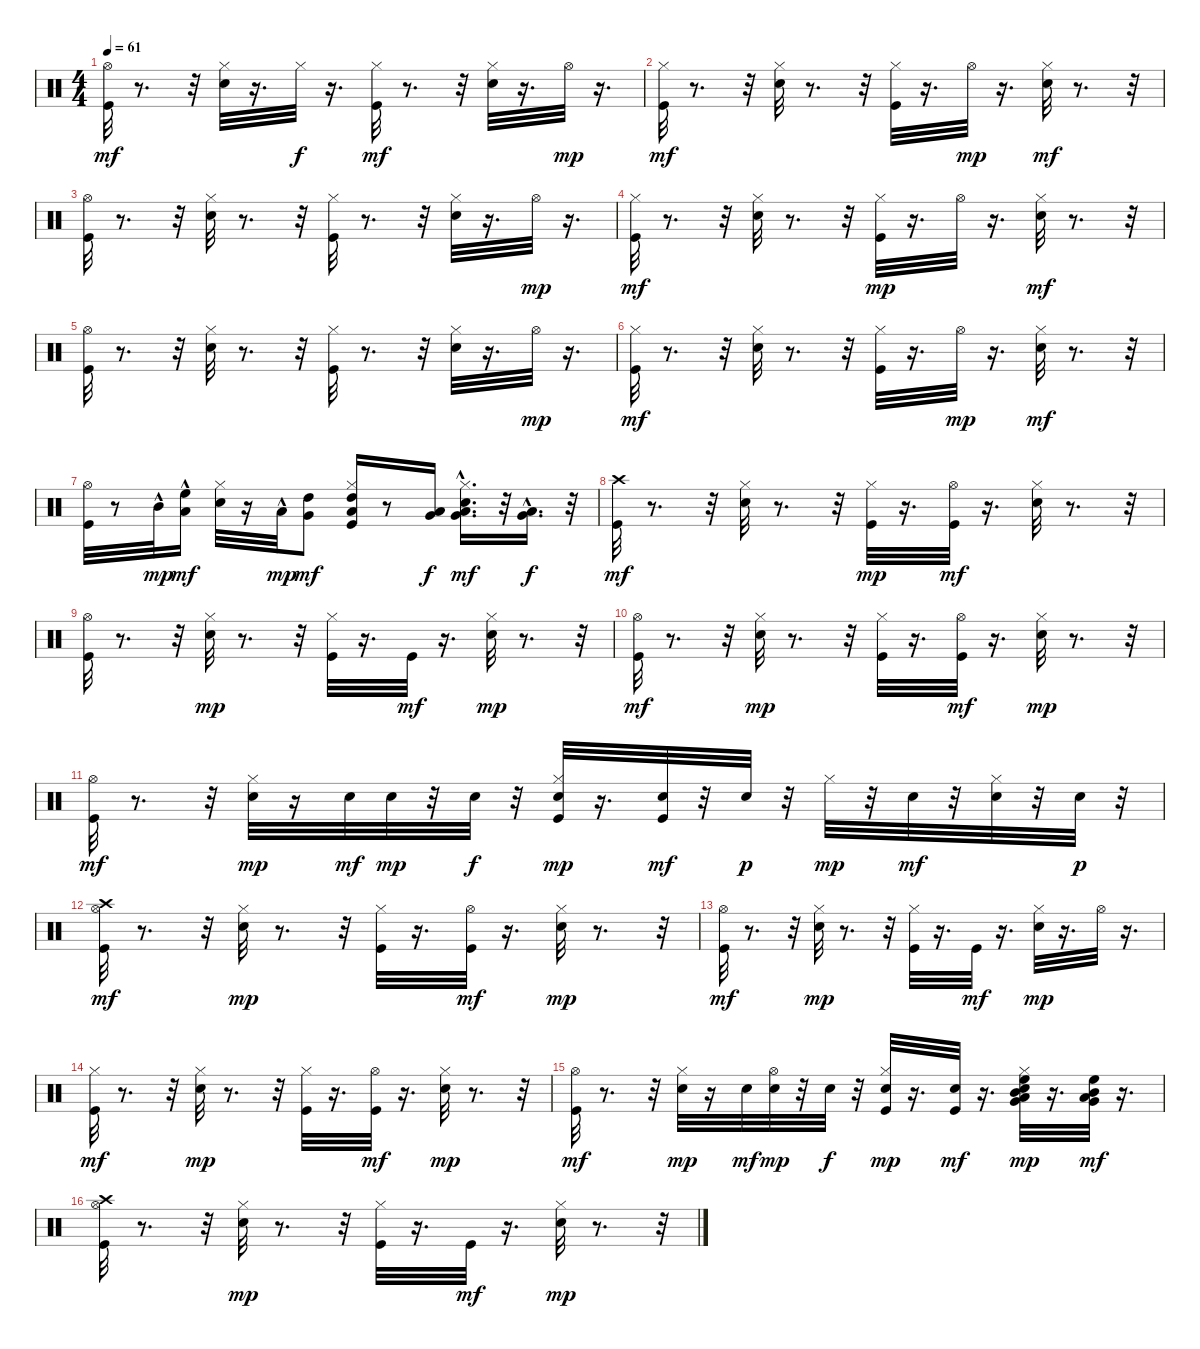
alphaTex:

\track "" {instrument percussion}
\staff {score}
\articulation defaults
\ts (4 4)
\tempo 61
\clef neutral
\ks c
("Hi-Hat (open)" "Kick (hit)").32{dy mf} r.8{d} r.32 ("Hi-Hat (closed)" "Electric Snare (hit)").32 r.16{d} "Hi-Hat (closed)".32{dy f} r.16{d} ("Hi-Hat (closed)" "Kick (hit)").32{dy mf} r.8{d} r.32 ("Hi-Hat (closed)" "Electric Snare (hit)").32 r.16{d} "Hi-Hat (open)".32{dy mp} r.16{d} |
("Hi-Hat (closed)" "Kick (hit)").32{dy mf} r.8{d} r.32 ("Hi-Hat (closed)" "Electric Snare (hit)").32 r.8{d} r.32 ("Hi-Hat (closed)" "Kick (hit)").32 r.16{d} "Hi-Hat (open)".32{dy mp} r.16{d} ("Hi-Hat (closed)" "Electric Snare (hit)").32{dy mf} r.8{d} r.32 |
("Hi-Hat (open)" "Kick (hit)").32 r.8{d} r.32 ("Hi-Hat (closed)" "Electric Snare (hit)").32 r.8{d} r.32 ("Hi-Hat (closed)" "Kick (hit)").32 r.8{d} r.32 ("Hi-Hat (closed)" "Electric Snare (hit)").32 r.16{d} "Hi-Hat (open)".32{dy mp} r.16{d} |
("Hi-Hat (closed)" "Kick (hit)").32{dy mf} r.8{d} r.32 ("Hi-Hat (closed)" "Electric Snare (hit)").32 r.8{d} r.32 ("Kick (hit)" "Hi-Hat (closed)").32{dy mp} r.16{d} "Hi-Hat (open)".32 r.16{d} ("Hi-Hat (closed)" "Electric Snare (hit)").32{dy mf} r.8{d} r.32 |
("Hi-Hat (open)" "Kick (hit)").32 r.8{d} r.32 ("Hi-Hat (closed)" "Electric Snare (hit)").32 r.8{d} r.32 ("Hi-Hat (closed)" "Kick (hit)").32 r.8{d} r.32 ("Hi-Hat (closed)" "Electric Snare (hit)").32 r.16{d} "Hi-Hat (open)".32{dy mp} r.16{d} |
("Hi-Hat (closed)" "Kick (hit)").32{dy mf} r.8{d} r.32 ("Hi-Hat (closed)" "Electric Snare (hit)").32 r.8{d} r.32 ("Hi-Hat (closed)" "Kick (hit)").32 r.16{d} "Hi-Hat (open)".32{dy mp} r.16{d} ("Hi-Hat (closed)" "Electric Snare (hit)").32{dy mf} r.8{d} r.32 |
("Hi-Hat (open)" "Kick (hit)").32 r.8 "Mid Tom (hit)"{hac}.32{dy mp} ("High Floor Tom (hit)"{hac} "Low Tom (hit)"{hac}).16{dy mf} ("Hi-Hat (closed)" "Electric Snare (hit)").32 r.16 "Low Tom (hit)"{hac}.32{dy mp} ("Very Low Tom (hit)" "High Tom (hit)").8{dy mf} ("High Tom (hit)" "Low Tom (hit)" "Hi-Hat (closed)" "Kick (hit)").16 r.8 ("Very Low Tom (hit)" "Low Tom (hit)").16{dy f} ("Very Low Tom (hit)"{hac} "Low Tom (hit)"{hac} "Hi-Hat (closed)" "Electric Snare (hit)").16{d dy mf} r.32 ("Low Floor Tom (hit)"{hac} "Very Low Tom (hit)").16{d dy f} r.32 |
("Kick (hit)" "Crash high (hit)").32{dy mf} r.8{d} r.32 ("Hi-Hat (closed)" "Electric Snare (hit)").32 r.8{d} r.32 ("Kick (hit)" "Hi-Hat (closed)").32{dy mp} r.16{d} ("Hi-Hat (open)" "Kick (hit)").32{dy mf} r.16{d} ("Hi-Hat (closed)" "Electric Snare (hit)").32 r.8{d} r.32 |
("Hi-Hat (open)" "Kick (hit)").32 r.8{d} r.32 ("Electric Snare (hit)" "Hi-Hat (closed)").32{dy mp} r.8{d} r.32 ("Kick (hit)" "Hi-Hat (closed)").32 r.16{d} "Kick (hit)".32{dy mf} r.16{d} ("Electric Snare (hit)" "Hi-Hat (closed)").32{dy mp} r.8{d} r.32 |
("Hi-Hat (open)" "Kick (hit)").32{dy mf} r.8{d} r.32 ("Electric Snare (hit)" "Hi-Hat (closed)").32{dy mp} r.8{d} r.32 ("Kick (hit)" "Hi-Hat (closed)").32 r.16{d} ("Hi-Hat (open)" "Kick (hit)").32{dy mf} r.16{d} ("Electric Snare (hit)" "Hi-Hat (closed)").32{dy mp} r.8{d} r.32 |
("Hi-Hat (open)" "Kick (hit)").32{dy mf} r.8{d} r.32 ("Electric Snare (hit)" "Hi-Hat (closed)").32{dy mp} r.16 "Electric Snare (hit)".32{dy mf} "Electric Snare (hit)".32{dy mp} r.32 "Electric Snare (hit)".32{dy f} r.32 ("Electric Snare (hit)" "Kick (hit)" "Hi-Hat (closed)").32{dy mp} r.16{d} ("Electric Snare (hit)" "Kick (hit)").32{dy mf} r.32 "Electric Snare (hit)".32{dy p} r.32 "Hi-Hat (closed)".32{dy mp} r.32 "Electric Snare (hit)".32{dy mf} r.32 ("Hi-Hat (closed)" "Electric Snare (hit)").32 r.32 "Electric Snare (hit)".32{dy p} r.32 |
("Hi-Hat (open)" "Crash high (hit)" "Kick (hit)").32{dy mf} r.8{d} r.32 ("Electric Snare (hit)" "Hi-Hat (closed)").32{dy mp} r.8{d} r.32 ("Kick (hit)" "Hi-Hat (closed)").32 r.16{d} ("Hi-Hat (open)" "Kick (hit)").32{dy mf} r.16{d} ("Electric Snare (hit)" "Hi-Hat (closed)").32{dy mp} r.8{d} r.32 |
("Hi-Hat (open)" "Kick (hit)").32{dy mf} r.8{d} r.32 ("Electric Snare (hit)" "Hi-Hat (closed)").32{dy mp} r.8{d} r.32 ("Kick (hit)" "Hi-Hat (closed)").32 r.16{d} "Kick (hit)".32{dy mf} r.16{d} ("Electric Snare (hit)" "Hi-Hat (closed)").32{dy mp} r.16{d} "Hi-Hat (open)".32 r.16{d} |
("Hi-Hat (closed)" "Kick (hit)").32{dy mf} r.8{d} r.32 ("Electric Snare (hit)" "Hi-Hat (closed)").32{dy mp} r.8{d} r.32 ("Kick (hit)" "Hi-Hat (closed)").32 r.16{d} ("Hi-Hat (open)" "Kick (hit)").32{dy mf} r.16{d} ("Electric Snare (hit)" "Hi-Hat (closed)").32{dy mp} r.8{d} r.32 |
("Hi-Hat (open)" "Kick (hit)").32{dy mf} r.8{d} r.32 ("Electric Snare (hit)" "Hi-Hat (closed)").32{dy mp} r.16 "Electric Snare (hit)".32{dy mf} ("Hi-Hat (open)" "Electric Snare (hit)").32{dy mp} r.32 "Electric Snare (hit)".32{dy f} r.32 ("Electric Snare (hit)" "Kick (hit)" "Hi-Hat (closed)").32{dy mp} r.16{d} ("Electric Snare (hit)" "Kick (hit)").32{dy mf} r.16{d} ("High Floor Tom (hit)" "Low Tom (hit)" "Electric Snare (hit)" "Very Low Tom (hit)" "Mid Tom (hit)" "Hi-Hat (closed)").32{dy mp} r.16{d} ("Low Floor Tom (hit)" "Very Low Tom (hit)" "High Floor Tom (hit)" "Mid Tom (hit)").32{dy mf} r.16{d} |
("Crash high (hit)" "Hi-Hat (open)" "Kick (hit)").32 r.8{d} r.32 ("Electric Snare (hit)" "Hi-Hat (closed)").32{dy mp} r.8{d} r.32 ("Kick (hit)" "Hi-Hat (closed)").32 r.16{d} "Kick (hit)".32{dy mf} r.16{d} ("Electric Snare (hit)" "Hi-Hat (closed)").32{dy mp} r.8{d} r.32
